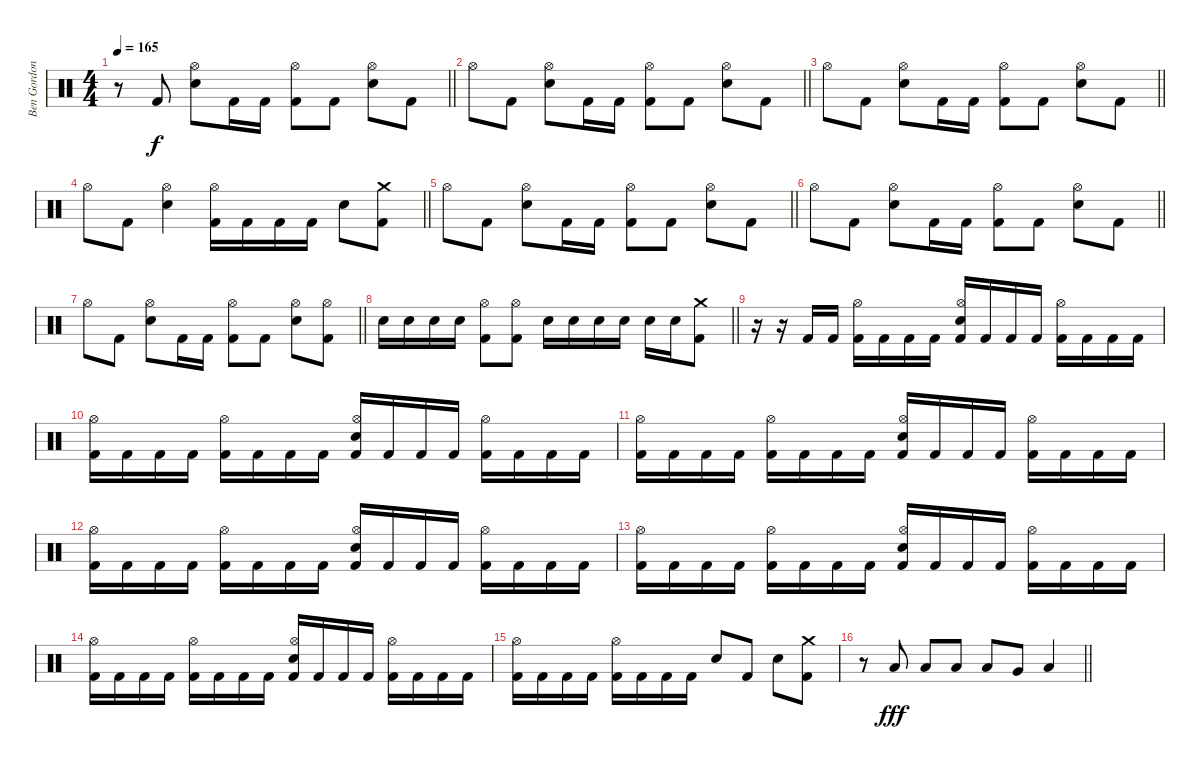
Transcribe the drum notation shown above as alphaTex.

\track ("Ben Gordon" "Ben Gordon") {instrument percussion}
\staff {score}
\articulation defaults
\ts (4 4)
\tempo 165
\clef neutral
\barLineRight lightlight
\ks c
r.8{dy f} "Kick (hit) 2".8 ("Hi-Hat (open)" "Electric Snare (hit)").8 "Kick (hit) 2".16 "Kick (hit) 2".16 ("Hi-Hat (open)" "Kick (hit) 2").8 "Kick (hit) 2".8 ("Hi-Hat (open)" "Electric Snare (hit)").8 "Kick (hit) 2".8 |
\barLineRight lightlight "Hi-Hat (open)".8 "Kick (hit) 2".8
("Hi-Hat (open)" "Electric Snare (hit)").8 "Kick (hit) 2".16 "Kick (hit) 2".16 ("Hi-Hat (open)" "Kick (hit) 2").8 "Kick (hit) 2".8 ("Hi-Hat (open)" "Electric Snare (hit)").8 "Kick (hit) 2".8 |
\barLineRight lightlight "Hi-Hat (open)".8 "Kick (hit) 2".8
("Hi-Hat (open)" "Electric Snare (hit)").8 "Kick (hit) 2".16 "Kick (hit) 2".16 ("Hi-Hat (open)" "Kick (hit) 2").8 "Kick (hit) 2".8 ("Hi-Hat (open)" "Electric Snare (hit)").8 "Kick (hit) 2".8 |
\barLineRight lightlight "Hi-Hat (open)".8 "Kick (hit) 2".8
("Hi-Hat (open)" "Electric Snare (hit)").4 ("Hi-Hat (open)" "Kick (hit) 2").16 "Kick (hit) 2".16 "Kick (hit) 2".16 "Kick (hit) 2".16 "Electric Snare (hit)".8 ("Crash medium (hit)" "Kick (hit) 2").8 |
\barLineRight lightlight "Hi-Hat (open)".8 "Kick (hit) 2".8
("Hi-Hat (open)" "Electric Snare (hit)").8 "Kick (hit) 2".16 "Kick (hit) 2".16 ("Hi-Hat (open)" "Kick (hit) 2").8 "Kick (hit) 2".8 ("Hi-Hat (open)" "Electric Snare (hit)").8 "Kick (hit) 2".8 |
\barLineRight lightlight "Hi-Hat (open)".8 "Kick (hit) 2".8
("Hi-Hat (open)" "Electric Snare (hit)").8 "Kick (hit) 2".16 "Kick (hit) 2".16 ("Hi-Hat (open)" "Kick (hit) 2").8 "Kick (hit) 2".8 ("Hi-Hat (open)" "Electric Snare (hit)").8 "Kick (hit) 2".8 |
\barLineRight lightlight "Hi-Hat (open)".8 "Kick (hit) 2".8
("Hi-Hat (open)" "Electric Snare (hit)").8 "Kick (hit) 2".16 "Kick (hit) 2".16 ("Hi-Hat (open)" "Kick (hit) 2").8 "Kick (hit) 2".8 ("Hi-Hat (open)" "Electric Snare (hit)").8 ("Hi-Hat (open)" "Kick (hit) 2").8 |
\barLineRight lightlight "Electric Snare (hit)".16 "Electric Snare (hit)".16 "Electric Snare (hit)".16 "Electric Snare (hit)".16
("Hi-Hat (open)" "Kick (hit) 2").8 ("Hi-Hat (open)" "Kick (hit) 2").8 "Electric Snare (hit)".16 "Electric Snare (hit)".16 "Electric Snare (hit)".16 "Electric Snare (hit)".16 "Electric Snare (hit)".16 "Electric Snare (hit)".16 ("Crash medium (hit)" "Kick (hit) 2").8 |
r.16 r.16 "Kick (hit) 2".16 "Kick (hit) 2".16 ("Hi-Hat (open)" "Kick (hit) 2").16 "Kick (hit) 2".16 "Kick (hit) 2".16 "Kick (hit) 2".16 ("Hi-Hat (open)" "Electric Snare (hit)" "Kick (hit) 2").16 "Kick (hit) 2".16 "Kick (hit) 2".16 "Kick (hit) 2".16 ("Hi-Hat (open)" "Kick (hit) 2").16 "Kick (hit) 2".16 "Kick (hit) 2".16 "Kick (hit) 2".16 |
("Hi-Hat (open)" "Kick (hit) 2").16 "Kick (hit) 2".16 "Kick (hit) 2".16 "Kick (hit) 2".16 ("Hi-Hat (open)" "Kick (hit) 2").16 "Kick (hit) 2".16 "Kick (hit) 2".16 "Kick (hit) 2".16 ("Hi-Hat (open)" "Electric Snare (hit)" "Kick (hit) 2").16 "Kick (hit) 2".16 "Kick (hit) 2".16 "Kick (hit) 2".16 ("Hi-Hat (open)" "Kick (hit) 2").16 "Kick (hit) 2".16 "Kick (hit) 2".16 "Kick (hit) 2".16 |
("Hi-Hat (open)" "Kick (hit) 2").16 "Kick (hit) 2".16 "Kick (hit) 2".16 "Kick (hit) 2".16 ("Hi-Hat (open)" "Kick (hit) 2").16 "Kick (hit) 2".16 "Kick (hit) 2".16 "Kick (hit) 2".16 ("Hi-Hat (open)" "Electric Snare (hit)" "Kick (hit) 2").16 "Kick (hit) 2".16 "Kick (hit) 2".16 "Kick (hit) 2".16 ("Hi-Hat (open)" "Kick (hit) 2").16 "Kick (hit) 2".16 "Kick (hit) 2".16 "Kick (hit) 2".16 |
("Hi-Hat (open)" "Kick (hit) 2").16 "Kick (hit) 2".16 "Kick (hit) 2".16 "Kick (hit) 2".16 ("Hi-Hat (open)" "Kick (hit) 2").16 "Kick (hit) 2".16 "Kick (hit) 2".16 "Kick (hit) 2".16 ("Hi-Hat (open)" "Electric Snare (hit)" "Kick (hit) 2").16 "Kick (hit) 2".16 "Kick (hit) 2".16 "Kick (hit) 2".16 ("Hi-Hat (open)" "Kick (hit) 2").16 "Kick (hit) 2".16 "Kick (hit) 2".16 "Kick (hit) 2".16 |
("Hi-Hat (open)" "Kick (hit) 2").16 "Kick (hit) 2".16 "Kick (hit) 2".16 "Kick (hit) 2".16 ("Hi-Hat (open)" "Kick (hit) 2").16 "Kick (hit) 2".16 "Kick (hit) 2".16 "Kick (hit) 2".16 ("Hi-Hat (open)" "Electric Snare (hit)" "Kick (hit) 2").16 "Kick (hit) 2".16 "Kick (hit) 2".16 "Kick (hit) 2".16 ("Hi-Hat (open)" "Kick (hit) 2").16 "Kick (hit) 2".16 "Kick (hit) 2".16 "Kick (hit) 2".16 |
("Hi-Hat (open)" "Kick (hit) 2").16 "Kick (hit) 2".16 "Kick (hit) 2".16 "Kick (hit) 2".16 ("Hi-Hat (open)" "Kick (hit) 2").16 "Kick (hit) 2".16 "Kick (hit) 2".16 "Kick (hit) 2".16 ("Hi-Hat (open)" "Electric Snare (hit)" "Kick (hit) 2").16 "Kick (hit) 2".16 "Kick (hit) 2".16 "Kick (hit) 2".16 ("Hi-Hat (open)" "Kick (hit) 2").16 "Kick (hit) 2".16 "Kick (hit) 2".16 "Kick (hit) 2".16 |
("Hi-Hat (open)" "Kick (hit) 2").16 "Kick (hit) 2".16 "Kick (hit) 2".16 "Kick (hit) 2".16 ("Hi-Hat (open)" "Kick (hit) 2").16 "Kick (hit) 2".16 "Kick (hit) 2".16 "Kick (hit) 2".16 "Electric Snare (hit)".8 "Kick (hit) 2".8 "Electric Snare (hit)".8 ("Crash medium (hit)" "Kick (hit) 2").8 |
\barLineRight lightlight
r.8 "Low Tom (hit)".8{dy fff} "Low Tom (hit)".8 "Low Tom (hit)".8 "Low Tom (hit)".8 "Very Low Tom (hit)".8 "Low Floor Tom (hit)".4
